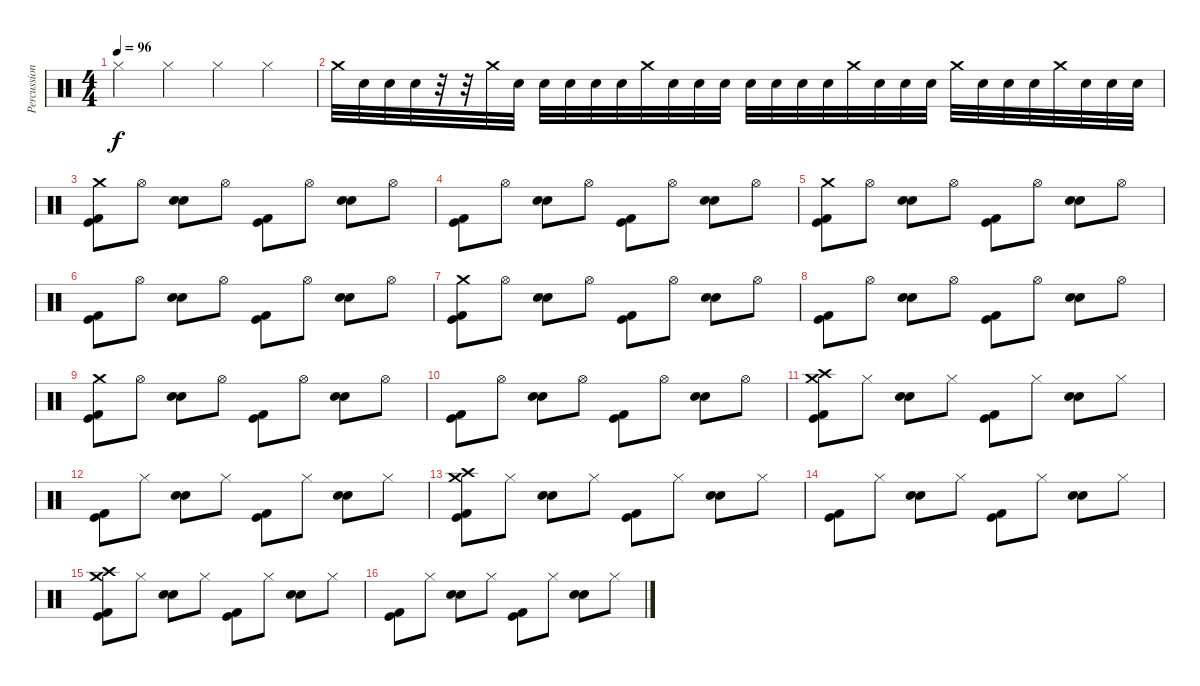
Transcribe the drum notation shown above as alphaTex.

\track ("Percussion" "Percussion") {instrument percussion}
\staff {score}
\articulation defaults
\ts (4 4)
\tempo 96
\clef neutral
\ks c "Hi-Hat (closed)".4{dy f} "Hi-Hat (closed)".4 "Hi-Hat (closed)".4 "Hi-Hat (closed)".4
|
"Crash medium (hit)".32 "Snare (hit)".32 "Snare (hit)".32 "Snare (hit)".32 r.32 r.32 "Crash medium (hit)".32 "Snare (hit)".32 "Snare (hit)".32 "Snare (hit)".32 "Snare (hit)".32 "Snare (hit)".32 "Crash medium (hit)".32 "Snare (hit)".32 "Snare (hit)".32 "Snare (hit)".32 "Snare (hit)".32 "Snare (hit)".32 "Snare (hit)".32 "Snare (hit)".32 "Crash medium (hit)".32 "Snare (hit)".32 "Snare (hit)".32 "Snare (hit)".32 "Crash medium (hit)".32 "Snare (hit)".32 "Snare (hit)".32 "Snare (hit)".32 "Crash medium (hit)".32 "Snare (hit)".32 "Snare (hit)".32 "Snare (hit)".32 |
("Crash medium (hit)" "Kick (hit) 2" "Kick (hit)").8 "Hi-Hat (open)".8 ("Snare (hit) 2" "Electric Snare (hit)").8 "Hi-Hat (open)".8 ("Kick (hit)" "Kick (hit) 2").8 "Hi-Hat (open)".8 ("Electric Snare (hit)" "Snare (hit) 2").8 "Hi-Hat (open)".8 |
("Kick (hit) 2" "Kick (hit)").8 "Hi-Hat (open)".8 ("Snare (hit) 2" "Electric Snare (hit)").8 "Hi-Hat (open)".8 ("Kick (hit)" "Kick (hit) 2").8 "Hi-Hat (open)".8 ("Electric Snare (hit)" "Snare (hit) 2").8 "Hi-Hat (open)".8 |
("Crash medium (hit)" "Kick (hit) 2" "Kick (hit)").8 "Hi-Hat (open)".8 ("Snare (hit) 2" "Electric Snare (hit)").8 "Hi-Hat (open)".8 ("Kick (hit)" "Kick (hit) 2").8 "Hi-Hat (open)".8 ("Electric Snare (hit)" "Snare (hit) 2").8 "Hi-Hat (open)".8 |
("Kick (hit) 2" "Kick (hit)").8 "Hi-Hat (open)".8 ("Snare (hit) 2" "Electric Snare (hit)").8 "Hi-Hat (open)".8 ("Kick (hit)" "Kick (hit) 2").8 "Hi-Hat (open)".8 ("Electric Snare (hit)" "Snare (hit) 2").8 "Hi-Hat (open)".8 |
("Crash medium (hit)" "Kick (hit) 2" "Kick (hit)").8 "Hi-Hat (open)".8 ("Snare (hit) 2" "Electric Snare (hit)").8 "Hi-Hat (open)".8 ("Kick (hit)" "Kick (hit) 2").8 "Hi-Hat (open)".8 ("Electric Snare (hit)" "Snare (hit) 2").8 "Hi-Hat (open)".8 |
("Kick (hit) 2" "Kick (hit)").8 "Hi-Hat (open)".8 ("Snare (hit) 2" "Electric Snare (hit)").8 "Hi-Hat (open)".8 ("Kick (hit)" "Kick (hit) 2").8 "Hi-Hat (open)".8 ("Electric Snare (hit)" "Snare (hit) 2").8 "Hi-Hat (open)".8 |
("Crash medium (hit)" "Kick (hit) 2" "Kick (hit)").8 "Hi-Hat (open)".8 ("Snare (hit) 2" "Electric Snare (hit)").8 "Hi-Hat (open)".8 ("Kick (hit)" "Kick (hit) 2").8 "Hi-Hat (open)".8 ("Electric Snare (hit)" "Snare (hit) 2").8 "Hi-Hat (open)".8 |
("Kick (hit) 2" "Kick (hit)").8 "Hi-Hat (open)".8 ("Snare (hit) 2" "Electric Snare (hit)").8 "Hi-Hat (open)".8 ("Kick (hit)" "Kick (hit) 2").8 "Hi-Hat (open)".8 ("Electric Snare (hit)" "Snare (hit) 2").8 "Hi-Hat (open)".8 |
("Crash medium (hit)" "Crash high (hit)" "Kick (hit) 2" "Kick (hit)").8 "Hi-Hat (closed)".8 ("Snare (hit) 2" "Electric Snare (hit)").8 "Hi-Hat (closed)".8 ("Kick (hit)" "Kick (hit) 2").8 "Hi-Hat (closed)".8 ("Electric Snare (hit)" "Snare (hit) 2").8 "Hi-Hat (closed)".8 |
("Kick (hit) 2" "Kick (hit)").8 "Hi-Hat (closed)".8 ("Snare (hit) 2" "Electric Snare (hit)").8 "Hi-Hat (closed)".8 ("Kick (hit)" "Kick (hit) 2").8 "Hi-Hat (closed)".8 ("Electric Snare (hit)" "Snare (hit) 2").8 "Hi-Hat (closed)".8 |
("Crash medium (hit)" "Crash high (hit)" "Kick (hit) 2" "Kick (hit)").8 "Hi-Hat (closed)".8 ("Snare (hit) 2" "Electric Snare (hit)").8 "Hi-Hat (closed)".8 ("Kick (hit)" "Kick (hit) 2").8 "Hi-Hat (closed)".8 ("Electric Snare (hit)" "Snare (hit) 2").8 "Hi-Hat (closed)".8 |
("Kick (hit) 2" "Kick (hit)").8 "Hi-Hat (closed)".8 ("Snare (hit) 2" "Electric Snare (hit)").8 "Hi-Hat (closed)".8 ("Kick (hit)" "Kick (hit) 2").8 "Hi-Hat (closed)".8 ("Electric Snare (hit)" "Snare (hit) 2").8 "Hi-Hat (closed)".8 |
("Crash medium (hit)" "Crash high (hit)" "Kick (hit) 2" "Kick (hit)").8 "Hi-Hat (closed)".8 ("Snare (hit) 2" "Electric Snare (hit)").8 "Hi-Hat (closed)".8 ("Kick (hit)" "Kick (hit) 2").8 "Hi-Hat (closed)".8 ("Electric Snare (hit)" "Snare (hit) 2").8 "Hi-Hat (closed)".8 |
("Kick (hit) 2" "Kick (hit)").8 "Hi-Hat (closed)".8 ("Snare (hit) 2" "Electric Snare (hit)").8 "Hi-Hat (closed)".8 ("Kick (hit)" "Kick (hit) 2").8 "Hi-Hat (closed)".8 ("Electric Snare (hit)" "Snare (hit) 2").8 "Hi-Hat (closed)".8
